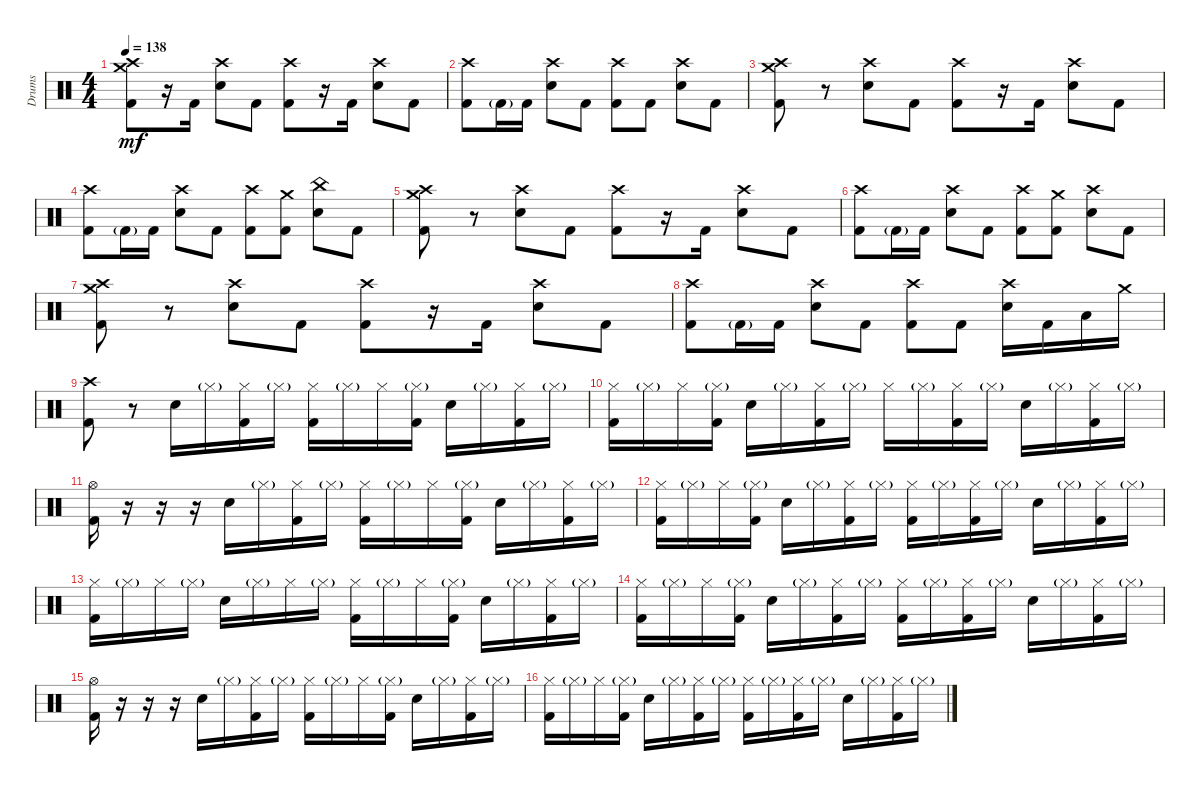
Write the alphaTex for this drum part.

\track ("Drums" "Drums") {instrument percussion}
\staff {score}
\articulation defaults
\ts (4 4)
\tempo 138
\clef neutral
\ks c
("Crash high (hit)" "Crash medium (hit)" "Kick (hit) 2").8{dy mf} r.16 "Kick (hit) 2".16 ("Crash high (hit)" "Snare (hit) 2").8 "Kick (hit) 2".8 ("Crash high (hit)" "Kick (hit) 2").8 r.16 "Kick (hit) 2".16 ("Crash high (hit)" "Snare (hit) 2").8 "Kick (hit) 2".8 |
("Crash high (hit)" "Kick (hit) 2").8 "Kick (hit) 2"{g}.16 "Kick (hit) 2".16 ("Crash high (hit)" "Snare (hit) 2").8 "Kick (hit) 2".8 ("Crash high (hit)" "Kick (hit) 2").8 "Kick (hit) 2".8 ("Crash high (hit)" "Snare (hit) 2").8 "Kick (hit) 2".8 |
("Crash medium (hit)" "Crash high (hit)" "Kick (hit) 2").8 r.8 ("Crash high (hit)" "Snare (hit) 2").8 "Kick (hit) 2".8 ("Crash high (hit)" "Kick (hit) 2").8 r.16 "Kick (hit) 2".16 ("Crash high (hit)" "Snare (hit) 2").8 "Kick (hit) 2".8 |
("Crash high (hit)" "Kick (hit) 2").8 "Kick (hit) 2"{g}.16 "Kick (hit) 2".16 ("Crash high (hit)" "Snare (hit) 2").8 "Kick (hit) 2".8 ("Crash high (hit)" "Kick (hit) 2").8 ("Crash medium (hit)" "Kick (hit) 2").8 ("China (hit)" "Snare (hit) 2").8 "Kick (hit) 2".8 |
("Crash medium (hit)" "Crash high (hit)" "Kick (hit) 2").8 r.8 ("Crash high (hit)" "Snare (hit) 2").8 "Kick (hit) 2".8 ("Crash high (hit)" "Kick (hit) 2").8 r.16 "Kick (hit) 2".16 ("Crash high (hit)" "Snare (hit) 2").8 "Kick (hit) 2".8 |
("Crash high (hit)" "Kick (hit) 2").8 "Kick (hit) 2"{g}.16 "Kick (hit) 2".16 ("Crash high (hit)" "Snare (hit) 2").8 "Kick (hit) 2".8 ("Crash high (hit)" "Kick (hit) 2").8 ("Crash medium (hit)" "Kick (hit) 2").8 ("Crash high (hit)" "Snare (hit) 2").8 "Kick (hit) 2".8 |
("Crash medium (hit)" "Crash high (hit)" "Kick (hit) 2").8 r.8 ("Crash high (hit)" "Snare (hit) 2").8 "Kick (hit) 2".8 ("Crash high (hit)" "Kick (hit) 2").8 r.16 "Kick (hit) 2".16 ("Crash high (hit)" "Snare (hit) 2").8 "Kick (hit) 2".8 |
("Crash high (hit)" "Kick (hit) 2").8 "Kick (hit) 2"{g}.16 "Kick (hit) 2".16 ("Crash high (hit)" "Snare (hit) 2").8 "Kick (hit) 2".8 ("Crash high (hit)" "Kick (hit) 2").8 "Kick (hit) 2".8 ("Crash high (hit)" "Snare (hit) 2").16 "Kick (hit) 2".16 "Low Tom (hit)".16 "Crash medium (hit)".16 |
("Crash high (hit)" "Kick (hit) 2").8 r.8 "Snare (hit) 2".16 "Hi-Hat (closed)"{g}.16 ("Hi-Hat (closed)" "Kick (hit) 2").16 "Hi-Hat (closed)"{g}.16 ("Hi-Hat (closed)" "Kick (hit) 2").16 "Hi-Hat (closed)"{g}.16 "Hi-Hat (closed)".16 ("Hi-Hat (closed)"{g} "Kick (hit) 2").16 "Snare (hit) 2".16 "Hi-Hat (closed)"{g}.16 ("Hi-Hat (closed)" "Kick (hit) 2").16 "Hi-Hat (closed)"{g}.16 |
("Hi-Hat (closed)" "Kick (hit) 2").16 "Hi-Hat (closed)"{g}.16 "Hi-Hat (closed)".16 ("Hi-Hat (closed)"{g} "Kick (hit) 2").16 "Snare (hit) 2".16 "Hi-Hat (closed)"{g}.16 ("Hi-Hat (closed)" "Kick (hit) 2").16 "Hi-Hat (closed)"{g}.16 "Hi-Hat (closed)".16 "Hi-Hat (closed)"{g}.16 ("Hi-Hat (closed)" "Kick (hit) 2").16 "Hi-Hat (closed)"{g}.16 "Snare (hit) 2".16 "Hi-Hat (closed)"{g}.16 ("Hi-Hat (closed)" "Kick (hit) 2").16 "Hi-Hat (closed)"{g}.16 |
("Hi-Hat (open)" "Kick (hit) 2").16 r.16 r.16 r.16 "Snare (hit) 2".16 "Hi-Hat (closed)"{g}.16 ("Hi-Hat (closed)" "Kick (hit) 2").16 "Hi-Hat (closed)"{g}.16 ("Hi-Hat (closed)" "Kick (hit) 2").16 "Hi-Hat (closed)"{g}.16 "Hi-Hat (closed)".16 ("Hi-Hat (closed)"{g} "Kick (hit) 2").16 "Snare (hit) 2".16 "Hi-Hat (closed)"{g}.16 ("Hi-Hat (closed)" "Kick (hit) 2").16 "Hi-Hat (closed)"{g}.16 |
("Hi-Hat (closed)" "Kick (hit) 2").16 "Hi-Hat (closed)"{g}.16 "Hi-Hat (closed)".16 ("Hi-Hat (closed)"{g} "Kick (hit) 2").16 "Snare (hit) 2".16 "Hi-Hat (closed)"{g}.16 ("Hi-Hat (closed)" "Kick (hit) 2").16 "Hi-Hat (closed)"{g}.16 ("Hi-Hat (closed)" "Kick (hit) 2").16 "Hi-Hat (closed)"{g}.16 ("Hi-Hat (closed)" "Kick (hit) 2").16 "Hi-Hat (closed)"{g}.16 "Snare (hit) 2".16 "Hi-Hat (closed)"{g}.16 ("Hi-Hat (closed)" "Kick (hit) 2").16 "Hi-Hat (closed)"{g}.16 |
("Hi-Hat (closed)" "Kick (hit) 2").16 "Hi-Hat (closed)"{g}.16 "Hi-Hat (closed)".16 "Hi-Hat (closed)"{g}.16 "Snare (hit) 2".16 "Hi-Hat (closed)"{g}.16 "Hi-Hat (closed)".16 "Hi-Hat (closed)"{g}.16 ("Hi-Hat (closed)" "Kick (hit) 2").16 "Hi-Hat (closed)"{g}.16 "Hi-Hat (closed)".16 ("Hi-Hat (closed)"{g} "Kick (hit) 2").16 "Snare (hit) 2".16 "Hi-Hat (closed)"{g}.16 ("Hi-Hat (closed)" "Kick (hit) 2").16 "Hi-Hat (closed)"{g}.16 |
("Hi-Hat (closed)" "Kick (hit) 2").16 "Hi-Hat (closed)"{g}.16 "Hi-Hat (closed)".16 ("Hi-Hat (closed)"{g} "Kick (hit) 2").16 "Snare (hit) 2".16 "Hi-Hat (closed)"{g}.16 ("Hi-Hat (closed)" "Kick (hit) 2").16 "Hi-Hat (closed)"{g}.16 ("Hi-Hat (closed)" "Kick (hit) 2").16 "Hi-Hat (closed)"{g}.16 ("Hi-Hat (closed)" "Kick (hit) 2").16 "Hi-Hat (closed)"{g}.16 "Snare (hit) 2".16 "Hi-Hat (closed)"{g}.16 ("Hi-Hat (closed)" "Kick (hit) 2").16 "Hi-Hat (closed)"{g}.16 |
("Hi-Hat (open)" "Kick (hit) 2").16 r.16 r.16 r.16 "Snare (hit) 2".16 "Hi-Hat (closed)"{g}.16 ("Hi-Hat (closed)" "Kick (hit) 2").16 "Hi-Hat (closed)"{g}.16 ("Hi-Hat (closed)" "Kick (hit) 2").16 "Hi-Hat (closed)"{g}.16 "Hi-Hat (closed)".16 ("Hi-Hat (closed)"{g} "Kick (hit) 2").16 "Snare (hit) 2".16 "Hi-Hat (closed)"{g}.16 ("Hi-Hat (closed)" "Kick (hit) 2").16 "Hi-Hat (closed)"{g}.16 |
("Hi-Hat (closed)" "Kick (hit) 2").16 "Hi-Hat (closed)"{g}.16 "Hi-Hat (closed)".16 ("Hi-Hat (closed)"{g} "Kick (hit) 2").16 "Snare (hit) 2".16 "Hi-Hat (closed)"{g}.16 ("Hi-Hat (closed)" "Kick (hit) 2").16 "Hi-Hat (closed)"{g}.16 ("Hi-Hat (closed)" "Kick (hit) 2").16 "Hi-Hat (closed)"{g}.16 ("Hi-Hat (closed)" "Kick (hit) 2").16 "Hi-Hat (closed)"{g}.16 "Snare (hit) 2".16 "Hi-Hat (closed)"{g}.16 ("Hi-Hat (closed)" "Kick (hit) 2").16 "Hi-Hat (closed)"{g}.16
